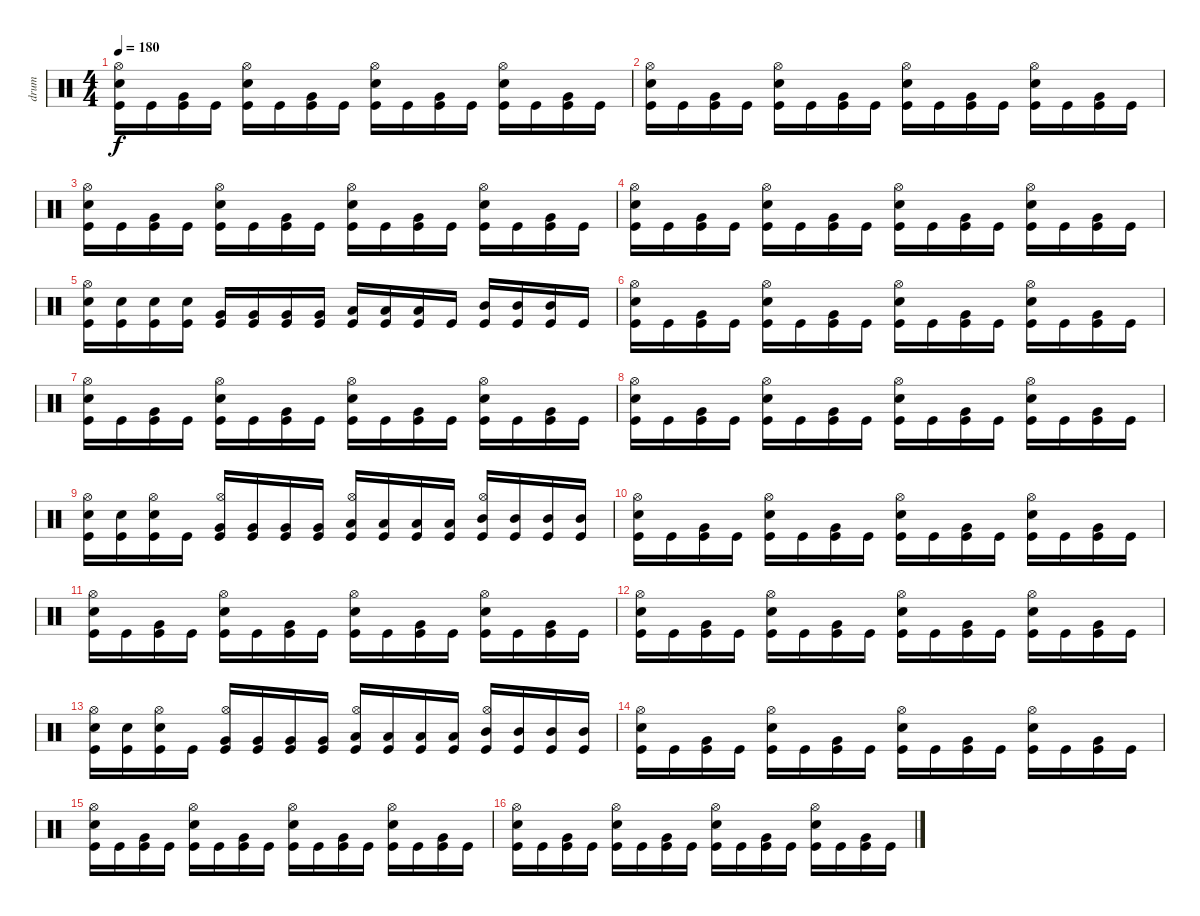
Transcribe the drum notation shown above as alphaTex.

\track ("drum" "drum") {instrument percussion}
\staff {score}
\articulation defaults
\ts (4 4)
\tempo 180
\clef neutral
\ks c
("Kick (hit)" "Snare (hit) 2" "Hi-Hat (open)").16{dy f} "Kick (hit)".16 ("Kick (hit)" "Very Low Tom (hit)").16 "Kick (hit)".16 ("Kick (hit)" "Snare (hit) 2" "Hi-Hat (open)").16 "Kick (hit)".16 ("Kick (hit)" "Very Low Tom (hit)").16 "Kick (hit)".16 ("Kick (hit)" "Snare (hit) 2" "Hi-Hat (open)").16 "Kick (hit)".16 ("Kick (hit)" "Very Low Tom (hit)").16 "Kick (hit)".16 ("Kick (hit)" "Snare (hit) 2" "Hi-Hat (open)").16 "Kick (hit)".16 ("Kick (hit)" "Very Low Tom (hit)").16 "Kick (hit)".16 |
("Kick (hit)" "Snare (hit) 2" "Hi-Hat (open)").16 "Kick (hit)".16 ("Kick (hit)" "Very Low Tom (hit)").16 "Kick (hit)".16 ("Kick (hit)" "Snare (hit) 2" "Hi-Hat (open)").16 "Kick (hit)".16 ("Kick (hit)" "Very Low Tom (hit)").16 "Kick (hit)".16 ("Kick (hit)" "Snare (hit) 2" "Hi-Hat (open)").16 "Kick (hit)".16 ("Kick (hit)" "Very Low Tom (hit)").16 "Kick (hit)".16 ("Kick (hit)" "Snare (hit) 2" "Hi-Hat (open)").16 "Kick (hit)".16 ("Kick (hit)" "Very Low Tom (hit)").16 "Kick (hit)".16 |
("Kick (hit)" "Snare (hit) 2" "Hi-Hat (open)").16 "Kick (hit)".16 ("Kick (hit)" "Very Low Tom (hit)").16 "Kick (hit)".16 ("Kick (hit)" "Snare (hit) 2" "Hi-Hat (open)").16 "Kick (hit)".16 ("Kick (hit)" "Very Low Tom (hit)").16 "Kick (hit)".16 ("Kick (hit)" "Snare (hit) 2" "Hi-Hat (open)").16 "Kick (hit)".16 ("Kick (hit)" "Very Low Tom (hit)").16 "Kick (hit)".16 ("Kick (hit)" "Snare (hit) 2" "Hi-Hat (open)").16 "Kick (hit)".16 ("Kick (hit)" "Very Low Tom (hit)").16 "Kick (hit)".16 |
("Kick (hit)" "Snare (hit) 2" "Hi-Hat (open)").16 "Kick (hit)".16 ("Kick (hit)" "Very Low Tom (hit)").16 "Kick (hit)".16 ("Kick (hit)" "Snare (hit) 2" "Hi-Hat (open)").16 "Kick (hit)".16 ("Kick (hit)" "Very Low Tom (hit)").16 "Kick (hit)".16 ("Kick (hit)" "Snare (hit) 2" "Hi-Hat (open)").16 "Kick (hit)".16 ("Kick (hit)" "Very Low Tom (hit)").16 "Kick (hit)".16 ("Kick (hit)" "Snare (hit) 2" "Hi-Hat (open)").16 "Kick (hit)".16 ("Kick (hit)" "Very Low Tom (hit)").16 "Kick (hit)".16 |
("Kick (hit)" "Snare (hit) 2" "Hi-Hat (open)").16 ("Kick (hit)" "Snare (hit) 2").16 ("Kick (hit)" "Snare (hit) 2").16 ("Kick (hit)" "Snare (hit) 2").16 ("Kick (hit)" "Very Low Tom (hit)").16 ("Kick (hit)" "Very Low Tom (hit)").16 ("Kick (hit)" "Very Low Tom (hit)").16 ("Kick (hit)" "Very Low Tom (hit)").16 ("Kick (hit)" "Low Tom (hit)").16 ("Kick (hit)" "Low Tom (hit)").16 ("Kick (hit)" "Low Tom (hit)").16 "Kick (hit)".16 ("Kick (hit)" "Mid Tom (hit)").16 ("Kick (hit)" "Mid Tom (hit)").16 ("Kick (hit)" "Mid Tom (hit)").16 "Kick (hit)".16 |
("Kick (hit)" "Snare (hit) 2" "Hi-Hat (open)").16 "Kick (hit)".16 ("Kick (hit)" "Very Low Tom (hit)").16 "Kick (hit)".16 ("Kick (hit)" "Snare (hit) 2" "Hi-Hat (open)").16 "Kick (hit)".16 ("Kick (hit)" "Very Low Tom (hit)").16 "Kick (hit)".16 ("Kick (hit)" "Snare (hit) 2" "Hi-Hat (open)").16 "Kick (hit)".16 ("Kick (hit)" "Very Low Tom (hit)").16 "Kick (hit)".16 ("Kick (hit)" "Snare (hit) 2" "Hi-Hat (open)").16 "Kick (hit)".16 ("Kick (hit)" "Very Low Tom (hit)").16 "Kick (hit)".16 |
("Kick (hit)" "Snare (hit) 2" "Hi-Hat (open)").16 "Kick (hit)".16 ("Kick (hit)" "Very Low Tom (hit)").16 "Kick (hit)".16 ("Kick (hit)" "Snare (hit) 2" "Hi-Hat (open)").16 "Kick (hit)".16 ("Kick (hit)" "Very Low Tom (hit)").16 "Kick (hit)".16 ("Kick (hit)" "Snare (hit) 2" "Hi-Hat (open)").16 "Kick (hit)".16 ("Kick (hit)" "Very Low Tom (hit)").16 "Kick (hit)".16 ("Kick (hit)" "Snare (hit) 2" "Hi-Hat (open)").16 "Kick (hit)".16 ("Kick (hit)" "Very Low Tom (hit)").16 "Kick (hit)".16 |
("Kick (hit)" "Snare (hit) 2" "Hi-Hat (open)").16 "Kick (hit)".16 ("Kick (hit)" "Very Low Tom (hit)").16 "Kick (hit)".16 ("Kick (hit)" "Snare (hit) 2" "Hi-Hat (open)").16 "Kick (hit)".16 ("Kick (hit)" "Very Low Tom (hit)").16 "Kick (hit)".16 ("Kick (hit)" "Snare (hit) 2" "Hi-Hat (open)").16 "Kick (hit)".16 ("Kick (hit)" "Very Low Tom (hit)").16 "Kick (hit)".16 ("Kick (hit)" "Snare (hit) 2" "Hi-Hat (open)").16 "Kick (hit)".16 ("Kick (hit)" "Very Low Tom (hit)").16 "Kick (hit)".16 |
("Kick (hit)" "Snare (hit) 2" "Hi-Hat (open)").16 ("Kick (hit)" "Snare (hit) 2").16 ("Kick (hit)" "Snare (hit) 2" "Hi-Hat (open)").16 "Kick (hit)".16 ("Kick (hit)" "Very Low Tom (hit)" "Hi-Hat (open)").16 ("Kick (hit)" "Very Low Tom (hit)").16 ("Kick (hit)" "Very Low Tom (hit)").16 ("Kick (hit)" "Very Low Tom (hit)").16 ("Kick (hit)" "Low Tom (hit)" "Hi-Hat (open)").16 ("Kick (hit)" "Low Tom (hit)").16 ("Kick (hit)" "Low Tom (hit)").16 ("Kick (hit)" "Low Tom (hit)").16 ("Kick (hit)" "Mid Tom (hit)" "Hi-Hat (open)").16 ("Kick (hit)" "Mid Tom (hit)").16 ("Kick (hit)" "Mid Tom (hit)").16 ("Kick (hit)" "Mid Tom (hit)").16 |
("Kick (hit)" "Snare (hit) 2" "Hi-Hat (open)").16 "Kick (hit)".16 ("Kick (hit)" "Very Low Tom (hit)").16 "Kick (hit)".16 ("Kick (hit)" "Snare (hit) 2" "Hi-Hat (open)").16 "Kick (hit)".16 ("Kick (hit)" "Very Low Tom (hit)").16 "Kick (hit)".16 ("Kick (hit)" "Snare (hit) 2" "Hi-Hat (open)").16 "Kick (hit)".16 ("Kick (hit)" "Very Low Tom (hit)").16 "Kick (hit)".16 ("Kick (hit)" "Snare (hit) 2" "Hi-Hat (open)").16 "Kick (hit)".16 ("Kick (hit)" "Very Low Tom (hit)").16 "Kick (hit)".16 |
("Kick (hit)" "Snare (hit) 2" "Hi-Hat (open)").16 "Kick (hit)".16 ("Kick (hit)" "Very Low Tom (hit)").16 "Kick (hit)".16 ("Kick (hit)" "Snare (hit) 2" "Hi-Hat (open)").16 "Kick (hit)".16 ("Kick (hit)" "Very Low Tom (hit)").16 "Kick (hit)".16 ("Kick (hit)" "Snare (hit) 2" "Hi-Hat (open)").16 "Kick (hit)".16 ("Kick (hit)" "Very Low Tom (hit)").16 "Kick (hit)".16 ("Kick (hit)" "Snare (hit) 2" "Hi-Hat (open)").16 "Kick (hit)".16 ("Kick (hit)" "Very Low Tom (hit)").16 "Kick (hit)".16 |
("Kick (hit)" "Snare (hit) 2" "Hi-Hat (open)").16 "Kick (hit)".16 ("Kick (hit)" "Very Low Tom (hit)").16 "Kick (hit)".16 ("Kick (hit)" "Snare (hit) 2" "Hi-Hat (open)").16 "Kick (hit)".16 ("Kick (hit)" "Very Low Tom (hit)").16 "Kick (hit)".16 ("Kick (hit)" "Snare (hit) 2" "Hi-Hat (open)").16 "Kick (hit)".16 ("Kick (hit)" "Very Low Tom (hit)").16 "Kick (hit)".16 ("Kick (hit)" "Snare (hit) 2" "Hi-Hat (open)").16 "Kick (hit)".16 ("Kick (hit)" "Very Low Tom (hit)").16 "Kick (hit)".16 |
("Kick (hit)" "Snare (hit) 2" "Hi-Hat (open)").16 ("Kick (hit)" "Snare (hit) 2").16 ("Kick (hit)" "Snare (hit) 2" "Hi-Hat (open)").16 "Kick (hit)".16 ("Kick (hit)" "Very Low Tom (hit)" "Hi-Hat (open)").16 ("Kick (hit)" "Very Low Tom (hit)").16 ("Kick (hit)" "Very Low Tom (hit)").16 ("Kick (hit)" "Very Low Tom (hit)").16 ("Kick (hit)" "Low Tom (hit)" "Hi-Hat (open)").16 ("Kick (hit)" "Low Tom (hit)").16 ("Kick (hit)" "Low Tom (hit)").16 ("Kick (hit)" "Low Tom (hit)").16 ("Kick (hit)" "Mid Tom (hit)" "Hi-Hat (open)").16 ("Kick (hit)" "Mid Tom (hit)").16 ("Kick (hit)" "Mid Tom (hit)").16 ("Kick (hit)" "Mid Tom (hit)").16 |
("Kick (hit)" "Snare (hit) 2" "Hi-Hat (open)").16 "Kick (hit)".16 ("Kick (hit)" "Very Low Tom (hit)").16 "Kick (hit)".16 ("Kick (hit)" "Snare (hit) 2" "Hi-Hat (open)").16 "Kick (hit)".16 ("Kick (hit)" "Very Low Tom (hit)").16 "Kick (hit)".16 ("Kick (hit)" "Snare (hit) 2" "Hi-Hat (open)").16 "Kick (hit)".16 ("Kick (hit)" "Very Low Tom (hit)").16 "Kick (hit)".16 ("Kick (hit)" "Snare (hit) 2" "Hi-Hat (open)").16 "Kick (hit)".16 ("Kick (hit)" "Very Low Tom (hit)").16 "Kick (hit)".16 |
("Kick (hit)" "Snare (hit) 2" "Hi-Hat (open)").16 "Kick (hit)".16 ("Kick (hit)" "Very Low Tom (hit)").16 "Kick (hit)".16 ("Kick (hit)" "Snare (hit) 2" "Hi-Hat (open)").16 "Kick (hit)".16 ("Kick (hit)" "Very Low Tom (hit)").16 "Kick (hit)".16 ("Kick (hit)" "Snare (hit) 2" "Hi-Hat (open)").16 "Kick (hit)".16 ("Kick (hit)" "Very Low Tom (hit)").16 "Kick (hit)".16 ("Kick (hit)" "Snare (hit) 2" "Hi-Hat (open)").16 "Kick (hit)".16 ("Kick (hit)" "Very Low Tom (hit)").16 "Kick (hit)".16 |
("Kick (hit)" "Snare (hit) 2" "Hi-Hat (open)").16 "Kick (hit)".16 ("Kick (hit)" "Very Low Tom (hit)").16 "Kick (hit)".16 ("Kick (hit)" "Snare (hit) 2" "Hi-Hat (open)").16 "Kick (hit)".16 ("Kick (hit)" "Very Low Tom (hit)").16 "Kick (hit)".16 ("Kick (hit)" "Snare (hit) 2" "Hi-Hat (open)").16 "Kick (hit)".16 ("Kick (hit)" "Very Low Tom (hit)").16 "Kick (hit)".16 ("Kick (hit)" "Snare (hit) 2" "Hi-Hat (open)").16 "Kick (hit)".16 ("Kick (hit)" "Very Low Tom (hit)").16 "Kick (hit)".16
